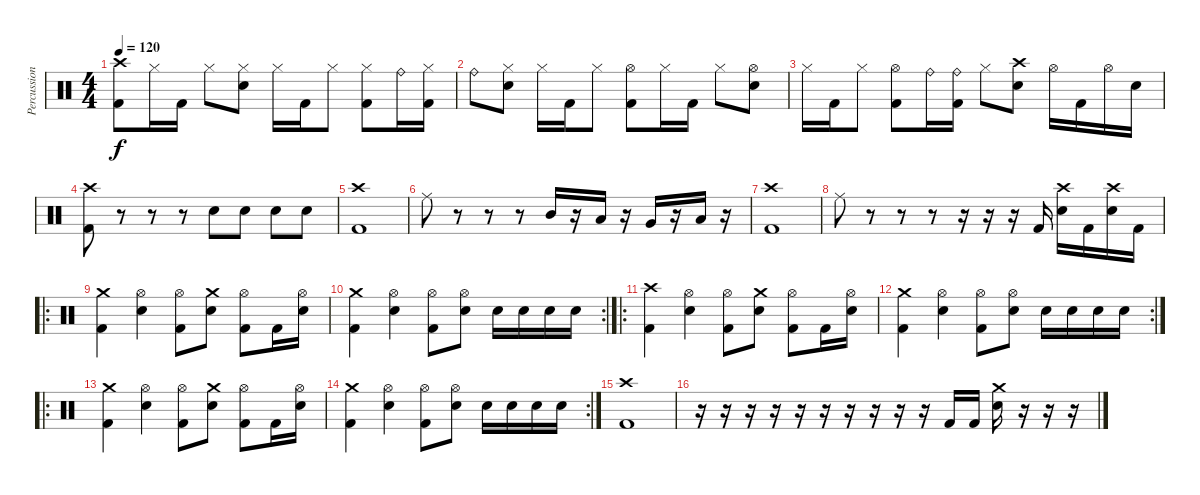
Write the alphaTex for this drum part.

\track ("Percussion" "Percussion") {instrument percussion}
\staff {score}
\articulation defaults
\ts (4 4)
\tempo 120
\clef neutral
\ks c
("Crash high (hit)" "Kick (hit) 2").8{dy f} "Hi-Hat (closed)".16 "Kick (hit) 2".16 "Hi-Hat (closed)".8 ("Hi-Hat (closed)" "Snare (hit) 2").8 "Hi-Hat (closed)".16 "Kick (hit) 2".16 "Hi-Hat (closed)".8 ("Hi-Hat (closed)" "Kick (hit) 2").8 "Ride (bell)".16 ("Hi-Hat (closed)" "Kick (hit) 2").16 |
"Ride (bell)".8 ("Hi-Hat (closed)" "Snare (hit) 2").8 "Hi-Hat (closed)".16 "Kick (hit) 2".16 "Hi-Hat (closed)".8 ("Hi-Hat (open)" "Kick (hit) 2").8 "Hi-Hat (closed)".16 "Kick (hit) 2".16 "Hi-Hat (closed)".8 ("Hi-Hat (open)" "Snare (hit) 2").8 |
"Hi-Hat (closed)".16 "Kick (hit) 2".16 "Hi-Hat (closed)".8 ("Hi-Hat (open)" "Kick (hit) 2").8 "Ride (bell)".16 ("Ride (bell)" "Kick (hit) 2").16 "Hi-Hat (closed)".8 ("Crash high (hit)" "Snare (hit) 2").8 "Hi-Hat (open)".16 "Kick (hit) 2".16 "Hi-Hat (open)".16 "Snare (hit) 2".16 |
("Crash high (hit)" "Kick (hit) 2").8 r.8 r.8 r.8 "Snare (hit) 2".8 "Snare (hit) 2".8 "Snare (hit) 2".8 "Snare (hit) 2".8 |
("Crash high (hit)" "Kick (hit) 2").1 |
"Ride (middle)".8 r.8 r.8 r.8 "Mid Tom (hit)".16 r.16 "Low Tom (hit)".16 r.16 "Very Low Tom (hit)".16 r.16 "Low Floor Tom (hit)".16 r.16 |
("Crash high (hit)" "Kick (hit) 2").1 |
"Ride (middle)".8 r.8 r.8 r.8 r.16 r.16 r.16 "Kick (hit) 2".16 ("Crash high (hit)" "Snare (hit) 2").16 "Kick (hit) 2".16 ("Crash high (hit)" "Snare (hit) 2").16 "Kick (hit) 2".16 |
\ro
("Crash medium (hit)" "Kick (hit) 2").4 ("Hi-Hat (open)" "Snare (hit) 2").4 ("Hi-Hat (open)" "Kick (hit) 2").8 ("Crash medium (hit)" "Snare (hit) 2").8 ("Hi-Hat (open)" "Kick (hit) 2").8 "Kick (hit) 2".16 ("Hi-Hat (open)" "Snare (hit) 2").16 |
\rc 2
("Crash medium (hit)" "Kick (hit) 2").4 ("Hi-Hat (open)" "Snare (hit) 2").4 ("Hi-Hat (open)" "Kick (hit) 2").8 ("Hi-Hat (open)" "Snare (hit) 2").8 "Snare (hit) 2".16 "Snare (hit) 2".16 "Snare (hit) 2".16 "Snare (hit) 2".16 |
\ro
("Crash high (hit)" "Kick (hit) 2").4 ("Hi-Hat (open)" "Snare (hit) 2").4 ("Hi-Hat (open)" "Kick (hit) 2").8 ("Crash medium (hit)" "Snare (hit) 2").8 ("Hi-Hat (open)" "Kick (hit) 2").8 "Kick (hit) 2".16 ("Hi-Hat (open)" "Snare (hit) 2").16 |
\rc 2
("Crash medium (hit)" "Kick (hit) 2").4 ("Hi-Hat (open)" "Snare (hit) 2").4 ("Hi-Hat (open)" "Kick (hit) 2").8 ("Hi-Hat (open)" "Snare (hit) 2").8 "Snare (hit) 2".16 "Snare (hit) 2".16 "Snare (hit) 2".16 "Snare (hit) 2".16 |
\ro
("Crash medium (hit)" "Kick (hit) 2").4 ("Hi-Hat (open)" "Snare (hit) 2").4 ("Hi-Hat (open)" "Kick (hit) 2").8 ("Crash medium (hit)" "Snare (hit) 2").8 ("Hi-Hat (open)" "Kick (hit) 2").8 "Kick (hit) 2".16 ("Hi-Hat (open)" "Snare (hit) 2").16 |
\rc 2
("Crash medium (hit)" "Kick (hit) 2").4 ("Hi-Hat (open)" "Snare (hit) 2").4 ("Hi-Hat (open)" "Kick (hit) 2").8 ("Hi-Hat (open)" "Snare (hit) 2").8 "Snare (hit) 2".16 "Snare (hit) 2".16 "Snare (hit) 2".16 "Snare (hit) 2".16 |
("Crash high (hit)" "Kick (hit) 2").1 |
r.16 r.16 r.16 r.16 r.16 r.16 r.16 r.16 r.16 r.16 "Kick (hit) 2".16 "Kick (hit) 2".16 ("Crash medium (hit)" "Snare (hit) 2").16 r.16 r.16 r.16
